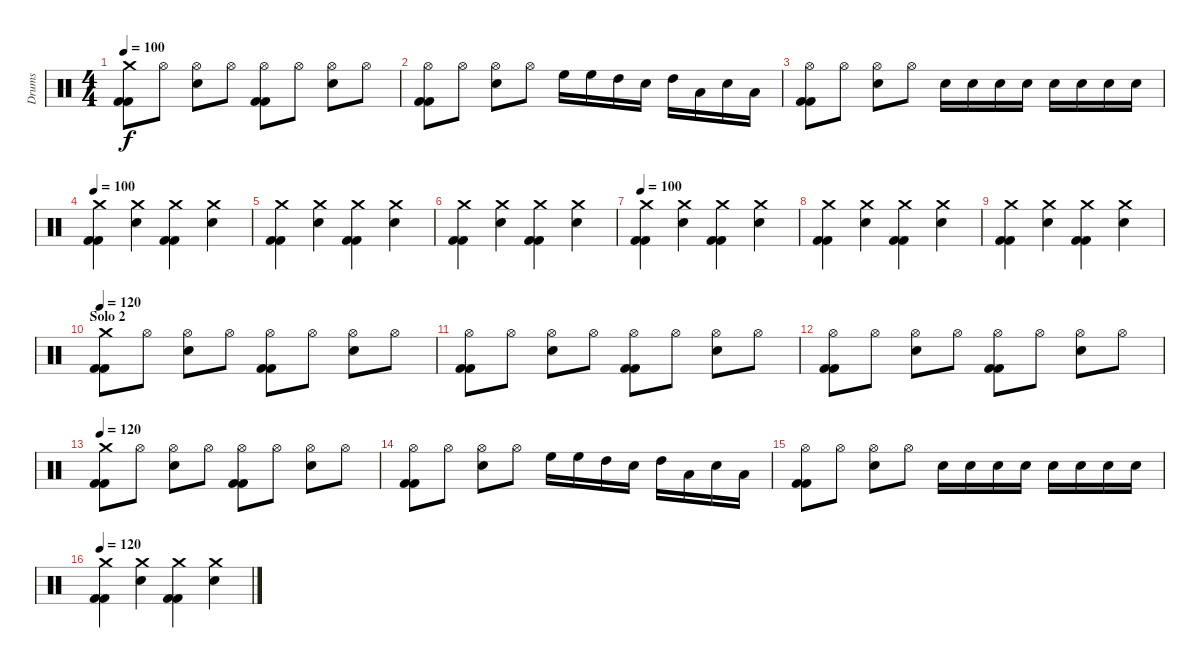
\track ("Drums" "Drums") {instrument percussion}
\staff {score}
\articulation defaults
\ts (4 4)
\tempo 100
\clef neutral
\ks c
("Kick (hit) 2" "Kick (hit) 2" "Crash medium (hit)").8{dy f} "Hi-Hat (open)".8 ("Hi-Hat (open)" "Electric Snare (hit)").8 "Hi-Hat (open)".8 ("Hi-Hat (open)" "Kick (hit) 2" "Kick (hit) 2").8 "Hi-Hat (open)".8 ("Electric Snare (hit)" "Hi-Hat (open)").8 "Hi-Hat (open)".8 |
("Kick (hit) 2" "Kick (hit) 2" "Hi-Hat (open)").8 "Hi-Hat (open)".8 ("Hi-Hat (open)" "Electric Snare (hit)").8 "Hi-Hat (open)".8 "High Floor Tom (hit)".16 "High Floor Tom (hit)".16 "High Tom (hit)".16 "Electric Snare (hit)".16 "High Tom (hit)".16 "Low Tom (hit)".16 "Electric Snare (hit)".16 "Low Floor Tom (hit)".16 |
("Kick (hit) 2" "Kick (hit) 2" "Hi-Hat (open)").8 "Hi-Hat (open)".8 ("Hi-Hat (open)" "Electric Snare (hit)").8 "Hi-Hat (open)".8 "Electric Snare (hit)".16 "Electric Snare (hit)".16 "Electric Snare (hit)".16 "Electric Snare (hit)".16 "Electric Snare (hit)".16 "Electric Snare (hit)".16 "Electric Snare (hit)".16 "Electric Snare (hit)".16 |
\tempo 100
("Crash medium (hit)" "Kick (hit) 2" "Kick (hit) 2").4 ("Electric Snare (hit)" "Crash medium (hit)").4 ("Kick (hit) 2" "Kick (hit) 2" "Crash medium (hit)").4 ("Crash medium (hit)" "Electric Snare (hit)").4 |
("Crash medium (hit)" "Kick (hit) 2" "Kick (hit) 2").4 ("Electric Snare (hit)" "Crash medium (hit)").4 ("Kick (hit) 2" "Kick (hit) 2" "Crash medium (hit)").4 ("Crash medium (hit)" "Electric Snare (hit)").4 |
("Crash medium (hit)" "Kick (hit) 2" "Kick (hit) 2").4 ("Electric Snare (hit)" "Crash medium (hit)").4 ("Kick (hit) 2" "Kick (hit) 2" "Crash medium (hit)").4 ("Crash medium (hit)" "Electric Snare (hit)").4 |
\tempo 100
("Crash medium (hit)" "Kick (hit) 2" "Kick (hit) 2").4 ("Electric Snare (hit)" "Crash medium (hit)").4 ("Kick (hit) 2" "Kick (hit) 2" "Crash medium (hit)").4 ("Crash medium (hit)" "Electric Snare (hit)").4 |
("Crash medium (hit)" "Kick (hit) 2" "Kick (hit) 2").4 ("Electric Snare (hit)" "Crash medium (hit)").4 ("Kick (hit) 2" "Kick (hit) 2" "Crash medium (hit)").4 ("Crash medium (hit)" "Electric Snare (hit)").4 |
("Crash medium (hit)" "Kick (hit) 2" "Kick (hit) 2").4 ("Electric Snare (hit)" "Crash medium (hit)").4 ("Kick (hit) 2" "Kick (hit) 2" "Crash medium (hit)").4 ("Crash medium (hit)" "Electric Snare (hit)").4 |
\section ("" "Solo 2 ")
\tempo 120
("Crash medium (hit)" "Kick (hit) 2" "Kick (hit) 2").8 "Hi-Hat (open)".8 ("Electric Snare (hit)" "Hi-Hat (open)").8 "Hi-Hat (open)".8 ("Hi-Hat (open)" "Kick (hit) 2" "Kick (hit) 2").8 "Hi-Hat (open)".8 ("Electric Snare (hit)" "Hi-Hat (open)").8 "Hi-Hat (open)".8 |
("Kick (hit) 2" "Kick (hit) 2" "Hi-Hat (open)").8 "Hi-Hat (open)".8 ("Hi-Hat (open)" "Electric Snare (hit)").8 "Hi-Hat (open)".8 ("Hi-Hat (open)" "Kick (hit) 2" "Kick (hit) 2").8 "Hi-Hat (open)".8 ("Electric Snare (hit)" "Hi-Hat (open)").8 "Hi-Hat (open)".8 |
("Kick (hit) 2" "Kick (hit) 2" "Hi-Hat (open)").8 "Hi-Hat (open)".8 ("Hi-Hat (open)" "Electric Snare (hit)").8 "Hi-Hat (open)".8 ("Hi-Hat (open)" "Kick (hit) 2" "Kick (hit) 2").8 "Hi-Hat (open)".8 ("Electric Snare (hit)" "Hi-Hat (open)").8 "Hi-Hat (open)".8 |
\tempo 120
("Kick (hit) 2" "Kick (hit) 2" "Crash medium (hit)").8 "Hi-Hat (open)".8 ("Hi-Hat (open)" "Electric Snare (hit)").8 "Hi-Hat (open)".8 ("Hi-Hat (open)" "Kick (hit) 2" "Kick (hit) 2").8 "Hi-Hat (open)".8 ("Electric Snare (hit)" "Hi-Hat (open)").8 "Hi-Hat (open)".8 |
("Kick (hit) 2" "Kick (hit) 2" "Hi-Hat (open)").8 "Hi-Hat (open)".8 ("Hi-Hat (open)" "Electric Snare (hit)").8 "Hi-Hat (open)".8 "High Floor Tom (hit)".16 "High Floor Tom (hit)".16 "High Tom (hit)".16 "Electric Snare (hit)".16 "High Tom (hit)".16 "Low Tom (hit)".16 "Electric Snare (hit)".16 "Low Floor Tom (hit)".16 |
("Kick (hit) 2" "Kick (hit) 2" "Hi-Hat (open)").8 "Hi-Hat (open)".8 ("Hi-Hat (open)" "Electric Snare (hit)").8 "Hi-Hat (open)".8 "Electric Snare (hit)".16 "Electric Snare (hit)".16 "Electric Snare (hit)".16 "Electric Snare (hit)".16 "Electric Snare (hit)".16 "Electric Snare (hit)".16 "Electric Snare (hit)".16 "Electric Snare (hit)".16 |
\tempo 120
("Crash medium (hit)" "Kick (hit) 2" "Kick (hit) 2").4 ("Electric Snare (hit)" "Crash medium (hit)").4 ("Kick (hit) 2" "Kick (hit) 2" "Crash medium (hit)").4 ("Crash medium (hit)" "Electric Snare (hit)").4
